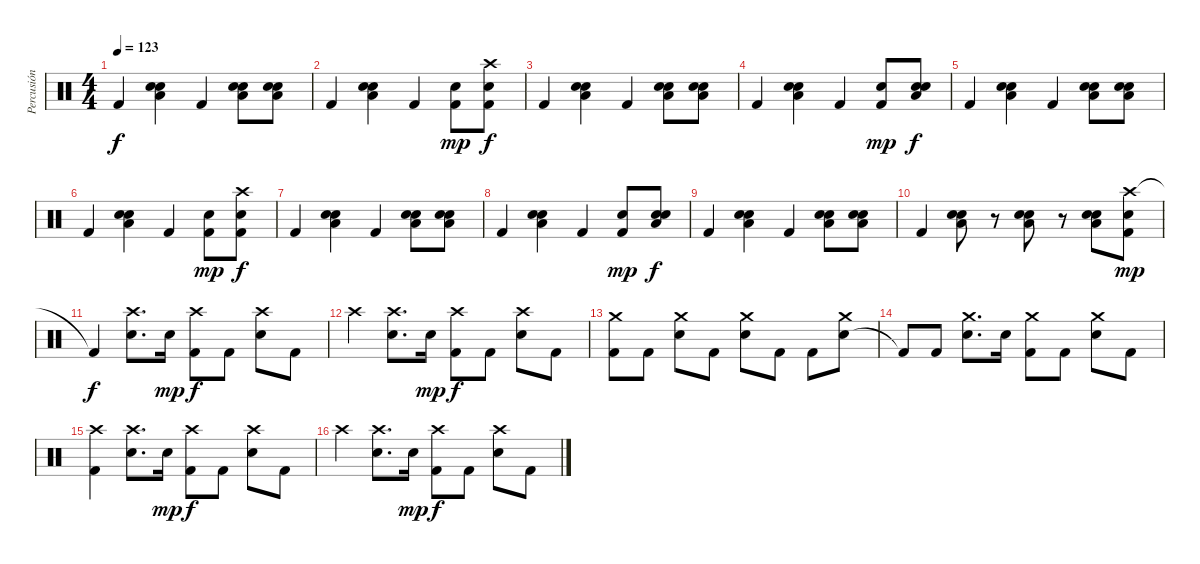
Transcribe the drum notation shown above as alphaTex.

\track ("Percusión" "Percusión") {instrument percussion}
\staff {score}
\articulation defaults
\ts (4 4)
\tempo 123
\clef neutral
\ks c "Kick (hit) 2".4{dy f}
("Snare (hit) 2" "Low Tom (hit)" "Hand Clap (hit)").4 "Kick (hit) 2".4 ("Snare (hit) 2" "Low Tom (hit)" "Hand Clap (hit)").8 ("Snare (hit) 2" "Low Tom (hit)" "Hand Clap (hit)").8 |
"Kick (hit) 2".4 ("Snare (hit) 2" "Low Tom (hit)" "Hand Clap (hit)").4 "Kick (hit) 2".4 ("Kick (hit) 2" "Hand Clap (hit)").8{dy mp} ("Crash high (hit)" "Kick (hit) 2" "Hand Clap (hit)").8{dy f} |
"Kick (hit) 2".4 ("Snare (hit) 2" "Low Tom (hit)" "Hand Clap (hit)").4 "Kick (hit) 2".4 ("Snare (hit) 2" "Low Tom (hit)" "Hand Clap (hit)").8 ("Snare (hit) 2" "Low Tom (hit)" "Hand Clap (hit)").8 |
"Kick (hit) 2".4 ("Snare (hit) 2" "Low Tom (hit)" "Hand Clap (hit)").4 "Kick (hit) 2".4 ("Kick (hit) 2" "Hand Clap (hit)").8{dy mp} ("Snare (hit) 2" "Low Tom (hit)" "Hand Clap (hit)").8{dy f} |
"Kick (hit) 2".4 ("Snare (hit) 2" "Low Tom (hit)" "Hand Clap (hit)").4 "Kick (hit) 2".4 ("Snare (hit) 2" "Low Tom (hit)" "Hand Clap (hit)").8 ("Snare (hit) 2" "Low Tom (hit)" "Hand Clap (hit)").8 |
"Kick (hit) 2".4 ("Snare (hit) 2" "Low Tom (hit)" "Hand Clap (hit)").4 "Kick (hit) 2".4 ("Kick (hit) 2" "Hand Clap (hit)").8{dy mp} ("Crash high (hit)" "Kick (hit) 2" "Hand Clap (hit)").8{dy f} |
"Kick (hit) 2".4 ("Snare (hit) 2" "Low Tom (hit)" "Hand Clap (hit)").4 "Kick (hit) 2".4 ("Snare (hit) 2" "Low Tom (hit)" "Hand Clap (hit)").8 ("Snare (hit) 2" "Low Tom (hit)" "Hand Clap (hit)").8 |
"Kick (hit) 2".4 ("Snare (hit) 2" "Low Tom (hit)" "Hand Clap (hit)").4 "Kick (hit) 2".4 ("Kick (hit) 2" "Hand Clap (hit)").8{dy mp} ("Snare (hit) 2" "Low Tom (hit)" "Hand Clap (hit)").8{dy f} |
"Kick (hit) 2".4 ("Snare (hit) 2" "Low Tom (hit)" "Hand Clap (hit)").4 "Kick (hit) 2".4 ("Snare (hit) 2" "Low Tom (hit)" "Hand Clap (hit)").8 ("Snare (hit) 2" "Low Tom (hit)" "Hand Clap (hit)").8 |
"Kick (hit) 2".4 ("Snare (hit) 2" "Low Tom (hit)" "Hand Clap (hit)").8 r.8 ("Snare (hit) 2" "Low Tom (hit)" "Hand Clap (hit)").8 r.8 ("Snare (hit) 2" "Low Tom (hit)" "Hand Clap (hit)").8 ("Crash high (hit)" "Kick (hit) 2" "Hand Clap (hit)").8{dy mp} |
"Kick (hit) 2"{t}.4{dy f} ("Snare (hit) 2" "Crash high (hit)").8{d} "Snare (hit) 2".16{dy mp} ("Kick (hit) 2" "Crash high (hit)").8{dy f} "Kick (hit) 2".8 ("Snare (hit) 2" "Crash high (hit)").8 "Kick (hit) 2".8 |
"Crash high (hit)".4 ("Snare (hit) 2" "Crash high (hit)").8{d} "Snare (hit) 2".16{dy mp} ("Kick (hit) 2" "Crash high (hit)").8{dy f} "Kick (hit) 2".8 ("Snare (hit) 2" "Crash high (hit)").8 "Kick (hit) 2".8 |
("Kick (hit) 2" "Crash medium (hit)").8 "Kick (hit) 2".8 ("Snare (hit) 2" "Crash medium (hit)").8 "Kick (hit) 2".8 ("Snare (hit) 2" "Crash medium (hit)").8 "Kick (hit) 2".8 "Kick (hit) 2".8 ("Snare (hit) 2" "Crash medium (hit)").8 |
"Kick (hit) 2"{t}.8 "Kick (hit) 2".8 ("Snare (hit) 2" "Crash medium (hit)").8{d} "Snare (hit) 2".16 ("Kick (hit) 2" "Crash medium (hit)").8 "Kick (hit) 2".8 ("Snare (hit) 2" "Crash medium (hit)").8 "Kick (hit) 2".8 |
("Kick (hit) 2" "Crash high (hit)").4 ("Snare (hit) 2" "Crash high (hit)").8{d} "Snare (hit) 2".16{dy mp} ("Kick (hit) 2" "Crash high (hit)").8{dy f} "Kick (hit) 2".8 ("Snare (hit) 2" "Crash high (hit)").8 "Kick (hit) 2".8 |
"Crash high (hit)".4 ("Snare (hit) 2" "Crash high (hit)").8{d} "Snare (hit) 2".16{dy mp} ("Kick (hit) 2" "Crash high (hit)").8{dy f} "Kick (hit) 2".8 ("Snare (hit) 2" "Crash high (hit)").8 "Kick (hit) 2".8
